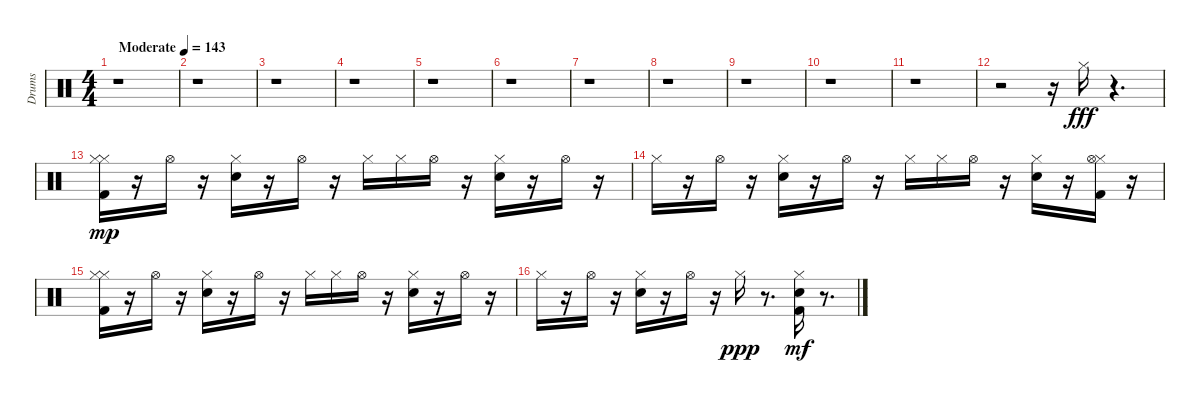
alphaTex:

\track ("Drums" "Drums") {instrument percussion}
\staff {score}
\articulation defaults
\ts (4 4)
\tempo (143 "Moderate")
\clef neutral
\ks c
r.1{dy fff} |
r.1 |
r.1 |
r.1 |
r.1 |
r.1 |
r.1 |
r.1 |
r.1 |
r.1 |
r.1 |
r.2 r.16 "Hi-Hat (closed)".16 r.4{d} |
("Hi-Hat (closed)" "Kick (hit) 2" "Hi-Hat (closed)").16{dy mp} r.16 "Hi-Hat (open)".16 r.16 ("Hand Clap (hit)" "Hi-Hat (closed)").16 r.16 "Hi-Hat (open)".16 r.16 "Hi-Hat (closed)".16 "Hi-Hat (closed)".16 "Hi-Hat (open)".16 r.16 ("Hand Clap (hit)" "Hi-Hat (closed)").16 r.16 "Hi-Hat (open)".16 r.16 |
"Hi-Hat (closed)".16 r.16 "Hi-Hat (open)".16 r.16 ("Hand Clap (hit)" "Hi-Hat (closed)").16 r.16 "Hi-Hat (open)".16 r.16 "Hi-Hat (closed)".16 "Hi-Hat (closed)".16 "Hi-Hat (open)".16 r.16 ("Hand Clap (hit)" "Hi-Hat (closed)").16 r.16 ("Hi-Hat (closed)" "Kick (hit) 2" "Hi-Hat (open)").16 r.16 |
("Hi-Hat (closed)" "Kick (hit) 2" "Hi-Hat (closed)").16 r.16 "Hi-Hat (open)".16 r.16 ("Hand Clap (hit)" "Hi-Hat (closed)").16 r.16 "Hi-Hat (open)".16 r.16 "Hi-Hat (closed)".16 "Hi-Hat (closed)".16 "Hi-Hat (open)".16 r.16 ("Hand Clap (hit)" "Hi-Hat (closed)").16 r.16 "Hi-Hat (open)".16 r.16 |
"Hi-Hat (closed)".16 r.16 "Hi-Hat (open)".16 r.16 ("Hand Clap (hit)" "Hi-Hat (closed)").16 r.16 "Hi-Hat (open)".16 r.16 "Hi-Hat (closed)".16{dy ppp} r.8{d} ("Hi-Hat (closed)" "Kick (hit) 2" "Hand Clap (hit)").16{dy mf} r.8{d}
